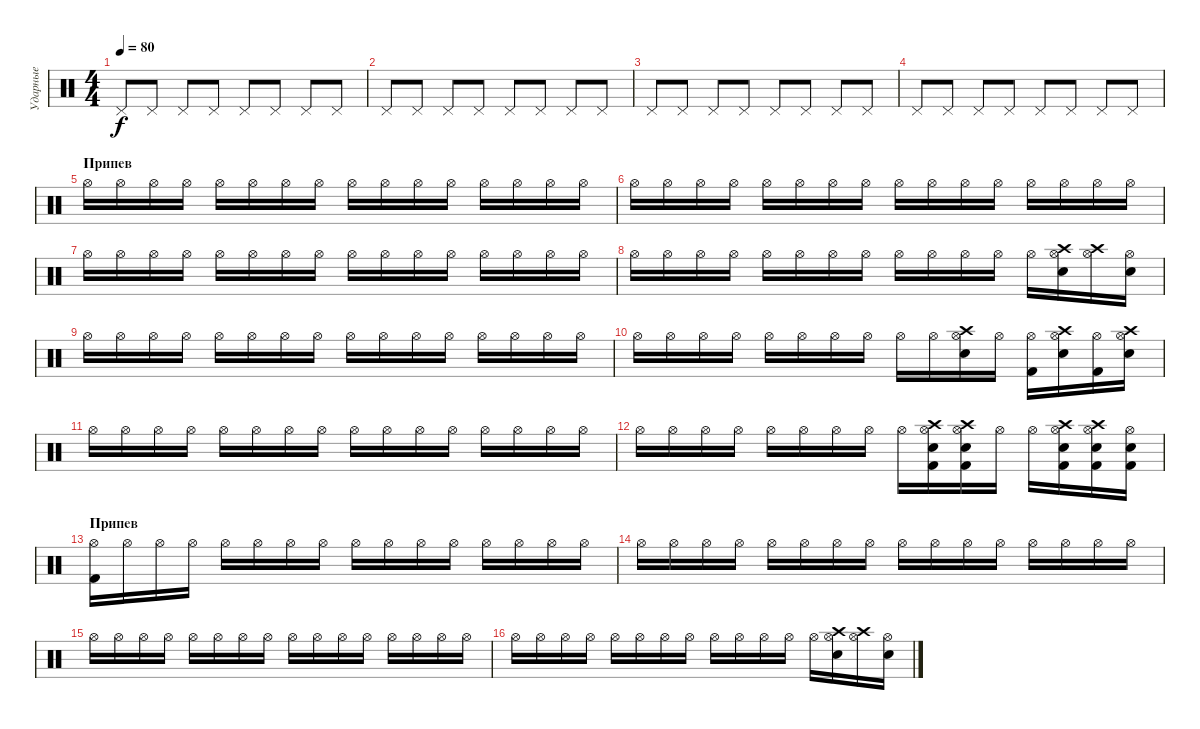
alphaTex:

\track ("Ударные" "Ударные") {instrument percussion}
\staff {score}
\articulation defaults
\ts (4 4)
\tempo 80
\clef neutral
\ks c "Pedal Hi-Hat (hit)".8{dy f} "Pedal Hi-Hat (hit)".8 "Pedal Hi-Hat (hit)".8 "Pedal Hi-Hat (hit)".8 "Pedal Hi-Hat (hit)".8 "Pedal Hi-Hat (hit)".8 "Pedal Hi-Hat (hit)".8 "Pedal Hi-Hat (hit)".8
|
"Pedal Hi-Hat (hit)".8 "Pedal Hi-Hat (hit)".8 "Pedal Hi-Hat (hit)".8 "Pedal Hi-Hat (hit)".8 "Pedal Hi-Hat (hit)".8 "Pedal Hi-Hat (hit)".8 "Pedal Hi-Hat (hit)".8 "Pedal Hi-Hat (hit)".8 |
"Pedal Hi-Hat (hit)".8 "Pedal Hi-Hat (hit)".8 "Pedal Hi-Hat (hit)".8 "Pedal Hi-Hat (hit)".8 "Pedal Hi-Hat (hit)".8 "Pedal Hi-Hat (hit)".8 "Pedal Hi-Hat (hit)".8 "Pedal Hi-Hat (hit)".8 |
"Pedal Hi-Hat (hit)".8 "Pedal Hi-Hat (hit)".8 "Pedal Hi-Hat (hit)".8 "Pedal Hi-Hat (hit)".8 "Pedal Hi-Hat (hit)".8 "Pedal Hi-Hat (hit)".8 "Pedal Hi-Hat (hit)".8 "Pedal Hi-Hat (hit)".8 |
\section ("" "Припев")
"Hi-Hat (open)".16 "Hi-Hat (open)".16 "Hi-Hat (open)".16 "Hi-Hat (open)".16 "Hi-Hat (open)".16 "Hi-Hat (open)".16 "Hi-Hat (open)".16 "Hi-Hat (open)".16 "Hi-Hat (open)".16 "Hi-Hat (open)".16 "Hi-Hat (open)".16 "Hi-Hat (open)".16 "Hi-Hat (open)".16 "Hi-Hat (open)".16 "Hi-Hat (open)".16 "Hi-Hat (open)".16 |
"Hi-Hat (open)".16 "Hi-Hat (open)".16 "Hi-Hat (open)".16 "Hi-Hat (open)".16 "Hi-Hat (open)".16 "Hi-Hat (open)".16 "Hi-Hat (open)".16 "Hi-Hat (open)".16 "Hi-Hat (open)".16 "Hi-Hat (open)".16 "Hi-Hat (open)".16 "Hi-Hat (open)".16 "Hi-Hat (open)".16 "Hi-Hat (open)".16 "Hi-Hat (open)".16 "Hi-Hat (open)".16 |
"Hi-Hat (open)".16 "Hi-Hat (open)".16 "Hi-Hat (open)".16 "Hi-Hat (open)".16 "Hi-Hat (open)".16 "Hi-Hat (open)".16 "Hi-Hat (open)".16 "Hi-Hat (open)".16 "Hi-Hat (open)".16 "Hi-Hat (open)".16 "Hi-Hat (open)".16 "Hi-Hat (open)".16 "Hi-Hat (open)".16 "Hi-Hat (open)".16 "Hi-Hat (open)".16 "Hi-Hat (open)".16 |
"Hi-Hat (open)".16 "Hi-Hat (open)".16 "Hi-Hat (open)".16 "Hi-Hat (open)".16 "Hi-Hat (open)".16 "Hi-Hat (open)".16 "Hi-Hat (open)".16 "Hi-Hat (open)".16 "Hi-Hat (open)".16 "Hi-Hat (open)".16 "Hi-Hat (open)".16 "Hi-Hat (open)".16 "Hi-Hat (open)".16 ("Hi-Hat (open)" "Crash high (hit)" "Snare (hit) 2").16 ("Hi-Hat (open)" "Crash high (hit)").16 ("Hi-Hat (open)" "Snare (hit) 2").16 |
"Hi-Hat (open)".16 "Hi-Hat (open)".16 "Hi-Hat (open)".16 "Hi-Hat (open)".16 "Hi-Hat (open)".16 "Hi-Hat (open)".16 "Hi-Hat (open)".16 "Hi-Hat (open)".16 "Hi-Hat (open)".16 "Hi-Hat (open)".16 "Hi-Hat (open)".16 "Hi-Hat (open)".16 "Hi-Hat (open)".16 "Hi-Hat (open)".16 "Hi-Hat (open)".16 "Hi-Hat (open)".16 |
"Hi-Hat (open)".16 "Hi-Hat (open)".16 "Hi-Hat (open)".16 "Hi-Hat (open)".16 "Hi-Hat (open)".16 "Hi-Hat (open)".16 "Hi-Hat (open)".16 "Hi-Hat (open)".16 "Hi-Hat (open)".16 "Hi-Hat (open)".16 ("Hi-Hat (open)" "Crash high (hit)" "Snare (hit) 2").16 "Hi-Hat (open)".16 ("Hi-Hat (open)" "Kick (hit) 2").16 ("Hi-Hat (open)" "Crash high (hit)" "Snare (hit) 2").16 ("Hi-Hat (open)" "Kick (hit) 2").16 ("Hi-Hat (open)" "Crash high (hit)" "Snare (hit) 2").16 |
"Hi-Hat (open)".16 "Hi-Hat (open)".16 "Hi-Hat (open)".16 "Hi-Hat (open)".16 "Hi-Hat (open)".16 "Hi-Hat (open)".16 "Hi-Hat (open)".16 "Hi-Hat (open)".16 "Hi-Hat (open)".16 "Hi-Hat (open)".16 "Hi-Hat (open)".16 "Hi-Hat (open)".16 "Hi-Hat (open)".16 "Hi-Hat (open)".16 "Hi-Hat (open)".16 "Hi-Hat (open)".16 |
"Hi-Hat (open)".16 "Hi-Hat (open)".16 "Hi-Hat (open)".16 "Hi-Hat (open)".16 "Hi-Hat (open)".16 "Hi-Hat (open)".16 "Hi-Hat (open)".16 "Hi-Hat (open)".16 "Hi-Hat (open)".16 ("Hi-Hat (open)" "Kick (hit) 2" "Crash high (hit)" "Snare (hit) 2").16 ("Hi-Hat (open)" "Kick (hit) 2" "Crash high (hit)" "Snare (hit) 2").16 "Hi-Hat (open)".16 "Hi-Hat (open)".16 ("Hi-Hat (open)" "Kick (hit) 2" "Crash high (hit)" "Snare (hit) 2").16 ("Hi-Hat (open)" "Kick (hit) 2" "Crash high (hit)" "Snare (hit) 2").16 ("Hi-Hat (open)" "Kick (hit) 2" "Snare (hit) 2").16 |
\section ("" "Припев")
("Hi-Hat (open)" "Kick (hit) 2").16 "Hi-Hat (open)".16 "Hi-Hat (open)".16 "Hi-Hat (open)".16 "Hi-Hat (open)".16 "Hi-Hat (open)".16 "Hi-Hat (open)".16 "Hi-Hat (open)".16 "Hi-Hat (open)".16 "Hi-Hat (open)".16 "Hi-Hat (open)".16 "Hi-Hat (open)".16 "Hi-Hat (open)".16 "Hi-Hat (open)".16 "Hi-Hat (open)".16 "Hi-Hat (open)".16 |
"Hi-Hat (open)".16 "Hi-Hat (open)".16 "Hi-Hat (open)".16 "Hi-Hat (open)".16 "Hi-Hat (open)".16 "Hi-Hat (open)".16 "Hi-Hat (open)".16 "Hi-Hat (open)".16 "Hi-Hat (open)".16 "Hi-Hat (open)".16 "Hi-Hat (open)".16 "Hi-Hat (open)".16 "Hi-Hat (open)".16 "Hi-Hat (open)".16 "Hi-Hat (open)".16 "Hi-Hat (open)".16 |
"Hi-Hat (open)".16 "Hi-Hat (open)".16 "Hi-Hat (open)".16 "Hi-Hat (open)".16 "Hi-Hat (open)".16 "Hi-Hat (open)".16 "Hi-Hat (open)".16 "Hi-Hat (open)".16 "Hi-Hat (open)".16 "Hi-Hat (open)".16 "Hi-Hat (open)".16 "Hi-Hat (open)".16 "Hi-Hat (open)".16 "Hi-Hat (open)".16 "Hi-Hat (open)".16 "Hi-Hat (open)".16 |
"Hi-Hat (open)".16 "Hi-Hat (open)".16 "Hi-Hat (open)".16 "Hi-Hat (open)".16 "Hi-Hat (open)".16 "Hi-Hat (open)".16 "Hi-Hat (open)".16 "Hi-Hat (open)".16 "Hi-Hat (open)".16 "Hi-Hat (open)".16 "Hi-Hat (open)".16 "Hi-Hat (open)".16 "Hi-Hat (open)".16 ("Hi-Hat (open)" "Crash high (hit)" "Snare (hit) 2").16 ("Hi-Hat (open)" "Crash high (hit)").16 ("Hi-Hat (open)" "Snare (hit) 2").16
